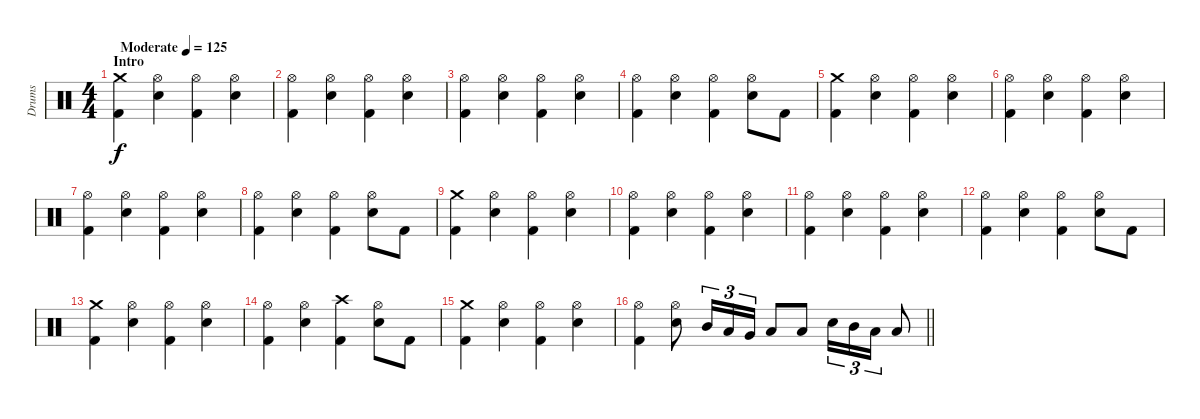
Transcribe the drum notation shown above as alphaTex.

\track ("Drums" "Drums") {instrument percussion}
\staff {score}
\articulation defaults
\ts (4 4)
\section ("" "Intro")
\tempo (125 "Moderate")
\clef neutral
\ks c
("Crash medium (hit)" "Kick (hit) 2").4{dy f} ("Hi-Hat (open)" "Electric Snare (hit)").4 ("Hi-Hat (open)" "Kick (hit) 2").4 ("Hi-Hat (open)" "Electric Snare (hit)").4 |
("Hi-Hat (open)" "Kick (hit) 2").4 ("Hi-Hat (open)" "Electric Snare (hit)").4 ("Hi-Hat (open)" "Kick (hit) 2").4 ("Hi-Hat (open)" "Electric Snare (hit)").4 |
("Hi-Hat (open)" "Kick (hit) 2").4 ("Hi-Hat (open)" "Electric Snare (hit)").4 ("Hi-Hat (open)" "Kick (hit) 2").4 ("Hi-Hat (open)" "Electric Snare (hit)").4 |
("Hi-Hat (open)" "Kick (hit) 2").4 ("Hi-Hat (open)" "Electric Snare (hit)").4 ("Hi-Hat (open)" "Kick (hit) 2").4 ("Hi-Hat (open)" "Electric Snare (hit)").8 "Kick (hit) 2".8 |
("Crash medium (hit)" "Kick (hit) 2").4 ("Hi-Hat (open)" "Electric Snare (hit)").4 ("Hi-Hat (open)" "Kick (hit) 2").4 ("Hi-Hat (open)" "Electric Snare (hit)").4 |
("Hi-Hat (open)" "Kick (hit) 2").4 ("Hi-Hat (open)" "Electric Snare (hit)").4 ("Hi-Hat (open)" "Kick (hit) 2").4 ("Hi-Hat (open)" "Electric Snare (hit)").4 |
("Hi-Hat (open)" "Kick (hit) 2").4 ("Hi-Hat (open)" "Electric Snare (hit)").4 ("Hi-Hat (open)" "Kick (hit) 2").4 ("Hi-Hat (open)" "Electric Snare (hit)").4 |
("Hi-Hat (open)" "Kick (hit) 2").4 ("Hi-Hat (open)" "Electric Snare (hit)").4 ("Hi-Hat (open)" "Kick (hit) 2").4 ("Hi-Hat (open)" "Electric Snare (hit)").8 "Kick (hit) 2".8 |
("Crash medium (hit)" "Kick (hit) 2").4 ("Hi-Hat (open)" "Electric Snare (hit)").4 ("Hi-Hat (open)" "Kick (hit) 2").4 ("Hi-Hat (open)" "Electric Snare (hit)").4 |
("Hi-Hat (open)" "Kick (hit) 2").4 ("Hi-Hat (open)" "Electric Snare (hit)").4 ("Hi-Hat (open)" "Kick (hit) 2").4 ("Hi-Hat (open)" "Electric Snare (hit)").4 |
("Hi-Hat (open)" "Kick (hit) 2").4 ("Hi-Hat (open)" "Electric Snare (hit)").4 ("Hi-Hat (open)" "Kick (hit) 2").4 ("Hi-Hat (open)" "Electric Snare (hit)").4 |
("Hi-Hat (open)" "Kick (hit) 2").4 ("Hi-Hat (open)" "Electric Snare (hit)").4 ("Hi-Hat (open)" "Kick (hit) 2").4 ("Hi-Hat (open)" "Electric Snare (hit)").8 "Kick (hit) 2".8 |
("Crash medium (hit)" "Kick (hit) 2").4 ("Hi-Hat (open)" "Electric Snare (hit)").4 ("Hi-Hat (open)" "Kick (hit) 2").4 ("Hi-Hat (open)" "Electric Snare (hit)").4 |
("Hi-Hat (open)" "Kick (hit) 2").4 ("Hi-Hat (open)" "Electric Snare (hit)").4 ("Crash high (hit)" "Kick (hit) 2").4 ("Hi-Hat (open)" "Electric Snare (hit)").8 "Kick (hit) 2".8 |
("Crash medium (hit)" "Kick (hit) 2").4 ("Hi-Hat (open)" "Electric Snare (hit)").4 ("Hi-Hat (open)" "Kick (hit) 2").4 ("Hi-Hat (open)" "Electric Snare (hit)").4 |
\barLineRight lightlight
("Hi-Hat (open)" "Kick (hit) 2").4 ("Hi-Hat (open)" "Electric Snare (hit)").8 "Mid Tom (hit)".16{tu (3 2)} "Low Tom (hit)".16{tu (3 2)} "Very Low Tom (hit)".16{tu (3 2)} "Low Tom (hit)".8 "Low Tom (hit)".8 "Electric Snare (hit)".16{tu (3 2)} "Mid Tom (hit)".16{tu (3 2)} "Low Tom (hit)".16{tu (3 2)} "Low Tom (hit)".8
